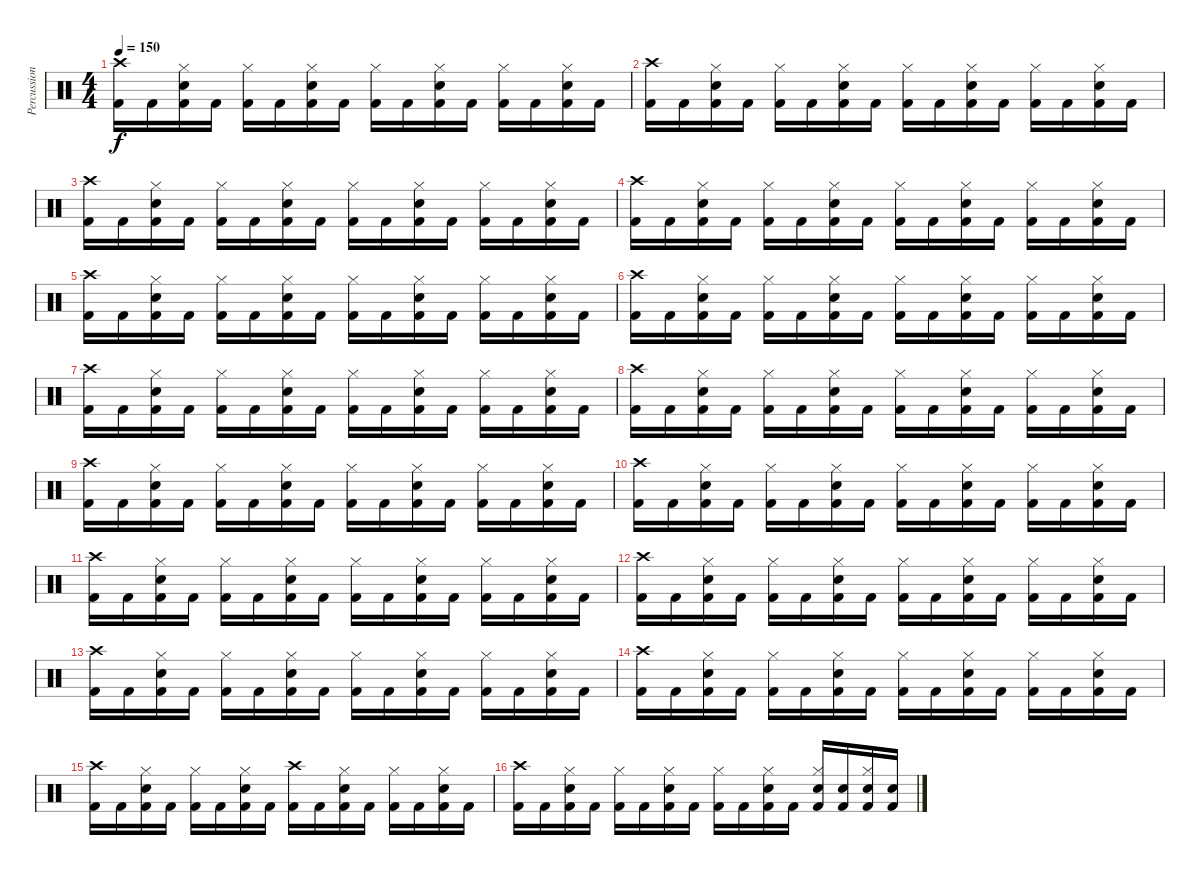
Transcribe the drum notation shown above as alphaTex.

\track ("Percussion" "Percussion") {instrument percussion}
\staff {score}
\articulation defaults
\ts (4 4)
\tempo 150
\clef neutral
\ks c
("Crash high (hit)" "Kick (hit) 2").16{dy f} "Kick (hit) 2".16 ("Hi-Hat (closed)" "Snare (hit) 2" "Kick (hit) 2").16 "Kick (hit) 2".16 ("Hi-Hat (closed)" "Kick (hit) 2").16 "Kick (hit) 2".16 ("Hi-Hat (closed)" "Snare (hit) 2" "Kick (hit) 2").16 "Kick (hit) 2".16 ("Hi-Hat (closed)" "Kick (hit) 2").16 "Kick (hit) 2".16 ("Hi-Hat (closed)" "Snare (hit) 2" "Kick (hit) 2").16 "Kick (hit) 2".16 ("Hi-Hat (closed)" "Kick (hit) 2").16 "Kick (hit) 2".16 ("Hi-Hat (closed)" "Snare (hit) 2" "Kick (hit) 2").16 "Kick (hit) 2".16 |
("Crash high (hit)" "Kick (hit) 2").16 "Kick (hit) 2".16 ("Hi-Hat (closed)" "Snare (hit) 2" "Kick (hit) 2").16 "Kick (hit) 2".16 ("Hi-Hat (closed)" "Kick (hit) 2").16 "Kick (hit) 2".16 ("Hi-Hat (closed)" "Snare (hit) 2" "Kick (hit) 2").16 "Kick (hit) 2".16 ("Hi-Hat (closed)" "Kick (hit) 2").16 "Kick (hit) 2".16 ("Hi-Hat (closed)" "Snare (hit) 2" "Kick (hit) 2").16 "Kick (hit) 2".16 ("Hi-Hat (closed)" "Kick (hit) 2").16 "Kick (hit) 2".16 ("Hi-Hat (closed)" "Snare (hit) 2" "Kick (hit) 2").16 "Kick (hit) 2".16 |
("Crash high (hit)" "Kick (hit) 2").16 "Kick (hit) 2".16 ("Hi-Hat (closed)" "Snare (hit) 2" "Kick (hit) 2").16 "Kick (hit) 2".16 ("Hi-Hat (closed)" "Kick (hit) 2").16 "Kick (hit) 2".16 ("Hi-Hat (closed)" "Snare (hit) 2" "Kick (hit) 2").16 "Kick (hit) 2".16 ("Hi-Hat (closed)" "Kick (hit) 2").16 "Kick (hit) 2".16 ("Hi-Hat (closed)" "Snare (hit) 2" "Kick (hit) 2").16 "Kick (hit) 2".16 ("Hi-Hat (closed)" "Kick (hit) 2").16 "Kick (hit) 2".16 ("Hi-Hat (closed)" "Snare (hit) 2" "Kick (hit) 2").16 "Kick (hit) 2".16 |
("Crash high (hit)" "Kick (hit) 2").16 "Kick (hit) 2".16 ("Hi-Hat (closed)" "Snare (hit) 2" "Kick (hit) 2").16 "Kick (hit) 2".16 ("Hi-Hat (closed)" "Kick (hit) 2").16 "Kick (hit) 2".16 ("Hi-Hat (closed)" "Snare (hit) 2" "Kick (hit) 2").16 "Kick (hit) 2".16 ("Hi-Hat (closed)" "Kick (hit) 2").16 "Kick (hit) 2".16 ("Hi-Hat (closed)" "Snare (hit) 2" "Kick (hit) 2").16 "Kick (hit) 2".16 ("Hi-Hat (closed)" "Kick (hit) 2").16 "Kick (hit) 2".16 ("Hi-Hat (closed)" "Snare (hit) 2" "Kick (hit) 2").16 "Kick (hit) 2".16 |
("Crash high (hit)" "Kick (hit) 2").16 "Kick (hit) 2".16 ("Hi-Hat (closed)" "Snare (hit) 2" "Kick (hit) 2").16 "Kick (hit) 2".16 ("Hi-Hat (closed)" "Kick (hit) 2").16 "Kick (hit) 2".16 ("Hi-Hat (closed)" "Snare (hit) 2" "Kick (hit) 2").16 "Kick (hit) 2".16 ("Hi-Hat (closed)" "Kick (hit) 2").16 "Kick (hit) 2".16 ("Hi-Hat (closed)" "Snare (hit) 2" "Kick (hit) 2").16 "Kick (hit) 2".16 ("Hi-Hat (closed)" "Kick (hit) 2").16 "Kick (hit) 2".16 ("Hi-Hat (closed)" "Snare (hit) 2" "Kick (hit) 2").16 "Kick (hit) 2".16 |
("Crash high (hit)" "Kick (hit) 2").16 "Kick (hit) 2".16 ("Hi-Hat (closed)" "Snare (hit) 2" "Kick (hit) 2").16 "Kick (hit) 2".16 ("Hi-Hat (closed)" "Kick (hit) 2").16 "Kick (hit) 2".16 ("Hi-Hat (closed)" "Snare (hit) 2" "Kick (hit) 2").16 "Kick (hit) 2".16 ("Hi-Hat (closed)" "Kick (hit) 2").16 "Kick (hit) 2".16 ("Hi-Hat (closed)" "Snare (hit) 2" "Kick (hit) 2").16 "Kick (hit) 2".16 ("Hi-Hat (closed)" "Kick (hit) 2").16 "Kick (hit) 2".16 ("Hi-Hat (closed)" "Snare (hit) 2" "Kick (hit) 2").16 "Kick (hit) 2".16 |
("Crash high (hit)" "Kick (hit) 2").16 "Kick (hit) 2".16 ("Hi-Hat (closed)" "Snare (hit) 2" "Kick (hit) 2").16 "Kick (hit) 2".16 ("Hi-Hat (closed)" "Kick (hit) 2").16 "Kick (hit) 2".16 ("Hi-Hat (closed)" "Snare (hit) 2" "Kick (hit) 2").16 "Kick (hit) 2".16 ("Hi-Hat (closed)" "Kick (hit) 2").16 "Kick (hit) 2".16 ("Hi-Hat (closed)" "Snare (hit) 2" "Kick (hit) 2").16 "Kick (hit) 2".16 ("Hi-Hat (closed)" "Kick (hit) 2").16 "Kick (hit) 2".16 ("Hi-Hat (closed)" "Snare (hit) 2" "Kick (hit) 2").16 "Kick (hit) 2".16 |
("Crash high (hit)" "Kick (hit) 2").16 "Kick (hit) 2".16 ("Hi-Hat (closed)" "Snare (hit) 2" "Kick (hit) 2").16 "Kick (hit) 2".16 ("Hi-Hat (closed)" "Kick (hit) 2").16 "Kick (hit) 2".16 ("Hi-Hat (closed)" "Snare (hit) 2" "Kick (hit) 2").16 "Kick (hit) 2".16 ("Hi-Hat (closed)" "Kick (hit) 2").16 "Kick (hit) 2".16 ("Hi-Hat (closed)" "Snare (hit) 2" "Kick (hit) 2").16 "Kick (hit) 2".16 ("Hi-Hat (closed)" "Kick (hit) 2").16 "Kick (hit) 2".16 ("Hi-Hat (closed)" "Snare (hit) 2" "Kick (hit) 2").16 "Kick (hit) 2".16 |
("Crash high (hit)" "Kick (hit) 2").16 "Kick (hit) 2".16 ("Hi-Hat (closed)" "Snare (hit) 2" "Kick (hit) 2").16 "Kick (hit) 2".16 ("Hi-Hat (closed)" "Kick (hit) 2").16 "Kick (hit) 2".16 ("Hi-Hat (closed)" "Snare (hit) 2" "Kick (hit) 2").16 "Kick (hit) 2".16 ("Hi-Hat (closed)" "Kick (hit) 2").16 "Kick (hit) 2".16 ("Hi-Hat (closed)" "Snare (hit) 2" "Kick (hit) 2").16 "Kick (hit) 2".16 ("Hi-Hat (closed)" "Kick (hit) 2").16 "Kick (hit) 2".16 ("Hi-Hat (closed)" "Snare (hit) 2" "Kick (hit) 2").16 "Kick (hit) 2".16 |
("Crash high (hit)" "Kick (hit) 2").16 "Kick (hit) 2".16 ("Hi-Hat (closed)" "Snare (hit) 2" "Kick (hit) 2").16 "Kick (hit) 2".16 ("Hi-Hat (closed)" "Kick (hit) 2").16 "Kick (hit) 2".16 ("Hi-Hat (closed)" "Snare (hit) 2" "Kick (hit) 2").16 "Kick (hit) 2".16 ("Hi-Hat (closed)" "Kick (hit) 2").16 "Kick (hit) 2".16 ("Hi-Hat (closed)" "Snare (hit) 2" "Kick (hit) 2").16 "Kick (hit) 2".16 ("Hi-Hat (closed)" "Kick (hit) 2").16 "Kick (hit) 2".16 ("Hi-Hat (closed)" "Snare (hit) 2" "Kick (hit) 2").16 "Kick (hit) 2".16 |
("Crash high (hit)" "Kick (hit) 2").16 "Kick (hit) 2".16 ("Hi-Hat (closed)" "Snare (hit) 2" "Kick (hit) 2").16 "Kick (hit) 2".16 ("Hi-Hat (closed)" "Kick (hit) 2").16 "Kick (hit) 2".16 ("Hi-Hat (closed)" "Snare (hit) 2" "Kick (hit) 2").16 "Kick (hit) 2".16 ("Hi-Hat (closed)" "Kick (hit) 2").16 "Kick (hit) 2".16 ("Hi-Hat (closed)" "Snare (hit) 2" "Kick (hit) 2").16 "Kick (hit) 2".16 ("Hi-Hat (closed)" "Kick (hit) 2").16 "Kick (hit) 2".16 ("Hi-Hat (closed)" "Snare (hit) 2" "Kick (hit) 2").16 "Kick (hit) 2".16 |
("Crash high (hit)" "Kick (hit) 2").16 "Kick (hit) 2".16 ("Hi-Hat (closed)" "Snare (hit) 2" "Kick (hit) 2").16 "Kick (hit) 2".16 ("Hi-Hat (closed)" "Kick (hit) 2").16 "Kick (hit) 2".16 ("Hi-Hat (closed)" "Snare (hit) 2" "Kick (hit) 2").16 "Kick (hit) 2".16 ("Hi-Hat (closed)" "Kick (hit) 2").16 "Kick (hit) 2".16 ("Hi-Hat (closed)" "Snare (hit) 2" "Kick (hit) 2").16 "Kick (hit) 2".16 ("Hi-Hat (closed)" "Kick (hit) 2").16 "Kick (hit) 2".16 ("Hi-Hat (closed)" "Snare (hit) 2" "Kick (hit) 2").16 "Kick (hit) 2".16 |
("Crash high (hit)" "Kick (hit) 2").16 "Kick (hit) 2".16 ("Hi-Hat (closed)" "Snare (hit) 2" "Kick (hit) 2").16 "Kick (hit) 2".16 ("Hi-Hat (closed)" "Kick (hit) 2").16 "Kick (hit) 2".16 ("Hi-Hat (closed)" "Snare (hit) 2" "Kick (hit) 2").16 "Kick (hit) 2".16 ("Hi-Hat (closed)" "Kick (hit) 2").16 "Kick (hit) 2".16 ("Hi-Hat (closed)" "Snare (hit) 2" "Kick (hit) 2").16 "Kick (hit) 2".16 ("Hi-Hat (closed)" "Kick (hit) 2").16 "Kick (hit) 2".16 ("Hi-Hat (closed)" "Snare (hit) 2" "Kick (hit) 2").16 "Kick (hit) 2".16 |
("Crash high (hit)" "Kick (hit) 2").16 "Kick (hit) 2".16 ("Hi-Hat (closed)" "Snare (hit) 2" "Kick (hit) 2").16 "Kick (hit) 2".16 ("Hi-Hat (closed)" "Kick (hit) 2").16 "Kick (hit) 2".16 ("Hi-Hat (closed)" "Snare (hit) 2" "Kick (hit) 2").16 "Kick (hit) 2".16 ("Hi-Hat (closed)" "Kick (hit) 2").16 "Kick (hit) 2".16 ("Hi-Hat (closed)" "Snare (hit) 2" "Kick (hit) 2").16 "Kick (hit) 2".16 ("Hi-Hat (closed)" "Kick (hit) 2").16 "Kick (hit) 2".16 ("Hi-Hat (closed)" "Snare (hit) 2" "Kick (hit) 2").16 "Kick (hit) 2".16 |
("Crash high (hit)" "Kick (hit) 2").16 "Kick (hit) 2".16 ("Hi-Hat (closed)" "Snare (hit) 2" "Kick (hit) 2").16 "Kick (hit) 2".16 ("Hi-Hat (closed)" "Kick (hit) 2").16 "Kick (hit) 2".16 ("Hi-Hat (closed)" "Snare (hit) 2" "Kick (hit) 2").16 "Kick (hit) 2".16 ("Crash high (hit)" "Kick (hit) 2").16 "Kick (hit) 2".16 ("Hi-Hat (closed)" "Snare (hit) 2" "Kick (hit) 2").16 "Kick (hit) 2".16 ("Hi-Hat (closed)" "Kick (hit) 2").16 "Kick (hit) 2".16 ("Hi-Hat (closed)" "Snare (hit) 2" "Kick (hit) 2").16 "Kick (hit) 2".16 |
("Crash high (hit)" "Kick (hit) 2").16 "Kick (hit) 2".16 ("Hi-Hat (closed)" "Snare (hit) 2" "Kick (hit) 2").16 "Kick (hit) 2".16 ("Hi-Hat (closed)" "Kick (hit) 2").16 "Kick (hit) 2".16 ("Hi-Hat (closed)" "Snare (hit) 2" "Kick (hit) 2").16 "Kick (hit) 2".16 ("Hi-Hat (closed)" "Kick (hit) 2").16 "Kick (hit) 2".16 ("Hi-Hat (closed)" "Snare (hit) 2" "Kick (hit) 2").16 "Kick (hit) 2".16 ("Hi-Hat (closed)" "Snare (hit) 2" "Kick (hit) 2").16 ("Snare (hit) 2" "Kick (hit) 2").16 ("Hi-Hat (closed)" "Snare (hit) 2" "Kick (hit) 2").16 ("Snare (hit) 2" "Kick (hit) 2").16
